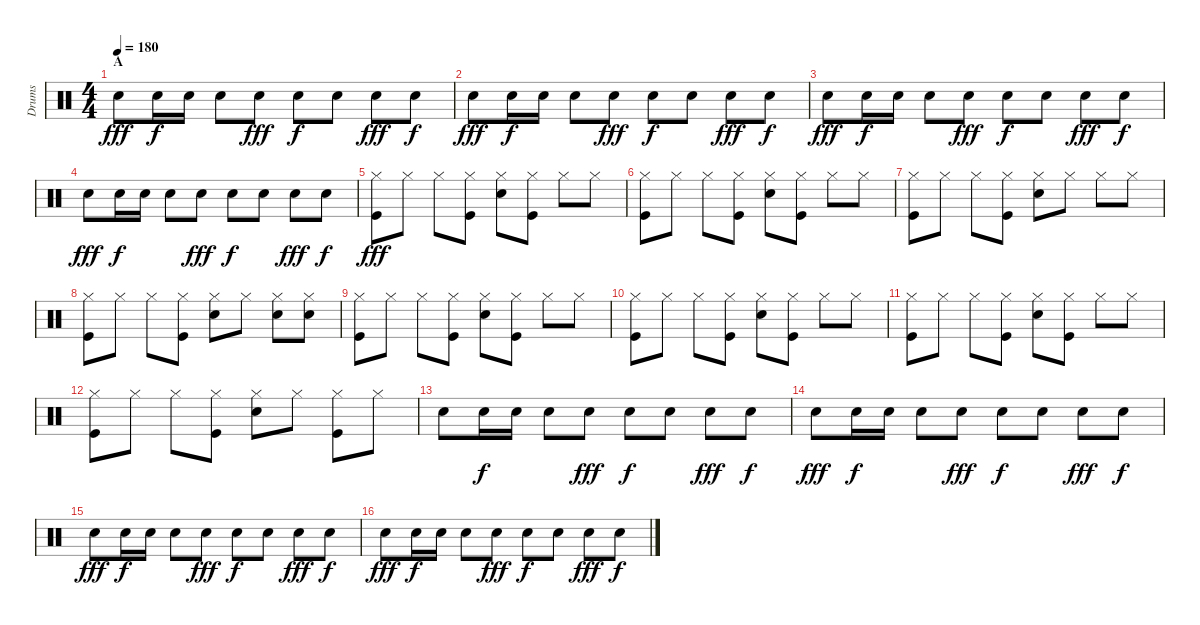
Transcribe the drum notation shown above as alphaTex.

\track ("Drums" "Drums") {instrument percussion}
\staff {score}
\articulation defaults
\ts (4 4)
\section ("" "A")
\tempo 180
\clef neutral
\ks c "Snare (hit) 2".8{dy fff} "Snare (hit) 2".16{dy f} "Snare (hit) 2".16 "Snare (hit) 2".8 "Snare (hit) 2".8{dy fff} "Snare (hit) 2".8{dy f} "Snare (hit) 2".8 "Snare (hit) 2".8{dy fff} "Snare (hit) 2".8{dy f}
|
"Snare (hit) 2".8{dy fff} "Snare (hit) 2".16{dy f} "Snare (hit) 2".16 "Snare (hit) 2".8 "Snare (hit) 2".8{dy fff} "Snare (hit) 2".8{dy f} "Snare (hit) 2".8 "Snare (hit) 2".8{dy fff} "Snare (hit) 2".8{dy f} |
"Snare (hit) 2".8{dy fff} "Snare (hit) 2".16{dy f} "Snare (hit) 2".16 "Snare (hit) 2".8 "Snare (hit) 2".8{dy fff} "Snare (hit) 2".8{dy f} "Snare (hit) 2".8 "Snare (hit) 2".8{dy fff} "Snare (hit) 2".8{dy f} |
"Snare (hit) 2".8{dy fff} "Snare (hit) 2".16{dy f} "Snare (hit) 2".16 "Snare (hit) 2".8 "Snare (hit) 2".8{dy fff} "Snare (hit) 2".8{dy f} "Snare (hit) 2".8 "Snare (hit) 2".8{dy fff} "Snare (hit) 2".8{dy f} |
("Hi-Hat (closed)" "Kick (hit)").8{dy fff} "Hi-Hat (closed)".8 "Hi-Hat (closed)".8 ("Hi-Hat (closed)" "Kick (hit)").8 ("Hi-Hat (closed)" "Snare (hit) 2").8 ("Hi-Hat (closed)" "Kick (hit)").8 "Hi-Hat (closed)".8 "Hi-Hat (closed)".8 |
("Hi-Hat (closed)" "Kick (hit)").8 "Hi-Hat (closed)".8 "Hi-Hat (closed)".8 ("Hi-Hat (closed)" "Kick (hit)").8 ("Hi-Hat (closed)" "Snare (hit) 2").8 ("Hi-Hat (closed)" "Kick (hit)").8 "Hi-Hat (closed)".8 "Hi-Hat (closed)".8 |
("Hi-Hat (closed)" "Kick (hit)").8 "Hi-Hat (closed)".8 "Hi-Hat (closed)".8 ("Hi-Hat (closed)" "Kick (hit)").8 ("Hi-Hat (closed)" "Snare (hit) 2").8 "Hi-Hat (closed)".8 "Hi-Hat (closed)".8 "Hi-Hat (closed)".8 |
("Hi-Hat (closed)" "Kick (hit)").8 "Hi-Hat (closed)".8 "Hi-Hat (closed)".8 ("Hi-Hat (closed)" "Kick (hit)").8 ("Hi-Hat (closed)" "Snare (hit) 2").8 "Hi-Hat (closed)".8 ("Hi-Hat (closed)" "Snare (hit) 2").8 ("Hi-Hat (closed)" "Snare (hit) 2").8 |
("Hi-Hat (closed)" "Kick (hit)").8 "Hi-Hat (closed)".8 "Hi-Hat (closed)".8 ("Hi-Hat (closed)" "Kick (hit)").8 ("Hi-Hat (closed)" "Snare (hit) 2").8 ("Hi-Hat (closed)" "Kick (hit)").8 "Hi-Hat (closed)".8 "Hi-Hat (closed)".8 |
("Hi-Hat (closed)" "Kick (hit)").8 "Hi-Hat (closed)".8 "Hi-Hat (closed)".8 ("Hi-Hat (closed)" "Kick (hit)").8 ("Hi-Hat (closed)" "Snare (hit) 2").8 ("Hi-Hat (closed)" "Kick (hit)").8 "Hi-Hat (closed)".8 "Hi-Hat (closed)".8 |
("Hi-Hat (closed)" "Kick (hit)").8 "Hi-Hat (closed)".8 "Hi-Hat (closed)".8 ("Hi-Hat (closed)" "Kick (hit)").8 ("Hi-Hat (closed)" "Snare (hit) 2").8 ("Hi-Hat (closed)" "Kick (hit)").8 "Hi-Hat (closed)".8 "Hi-Hat (closed)".8 |
("Hi-Hat (closed)" "Kick (hit)").8 "Hi-Hat (closed)".8 "Hi-Hat (closed)".8 ("Hi-Hat (closed)" "Kick (hit)").8 ("Hi-Hat (closed)" "Snare (hit) 2").8 "Hi-Hat (closed)".8 ("Hi-Hat (closed)" "Kick (hit)").8 "Hi-Hat (closed)".8 |
"Snare (hit) 2".8 "Snare (hit) 2".16{dy f} "Snare (hit) 2".16 "Snare (hit) 2".8 "Snare (hit) 2".8{dy fff} "Snare (hit) 2".8{dy f} "Snare (hit) 2".8 "Snare (hit) 2".8{dy fff} "Snare (hit) 2".8{dy f} |
"Snare (hit) 2".8{dy fff} "Snare (hit) 2".16{dy f} "Snare (hit) 2".16 "Snare (hit) 2".8 "Snare (hit) 2".8{dy fff} "Snare (hit) 2".8{dy f} "Snare (hit) 2".8 "Snare (hit) 2".8{dy fff} "Snare (hit) 2".8{dy f} |
"Snare (hit) 2".8{dy fff} "Snare (hit) 2".16{dy f} "Snare (hit) 2".16 "Snare (hit) 2".8 "Snare (hit) 2".8{dy fff} "Snare (hit) 2".8{dy f} "Snare (hit) 2".8 "Snare (hit) 2".8{dy fff} "Snare (hit) 2".8{dy f} |
"Snare (hit) 2".8{dy fff} "Snare (hit) 2".16{dy f} "Snare (hit) 2".16 "Snare (hit) 2".8 "Snare (hit) 2".8{dy fff} "Snare (hit) 2".8{dy f} "Snare (hit) 2".8 "Snare (hit) 2".8{dy fff} "Snare (hit) 2".8{dy f}
